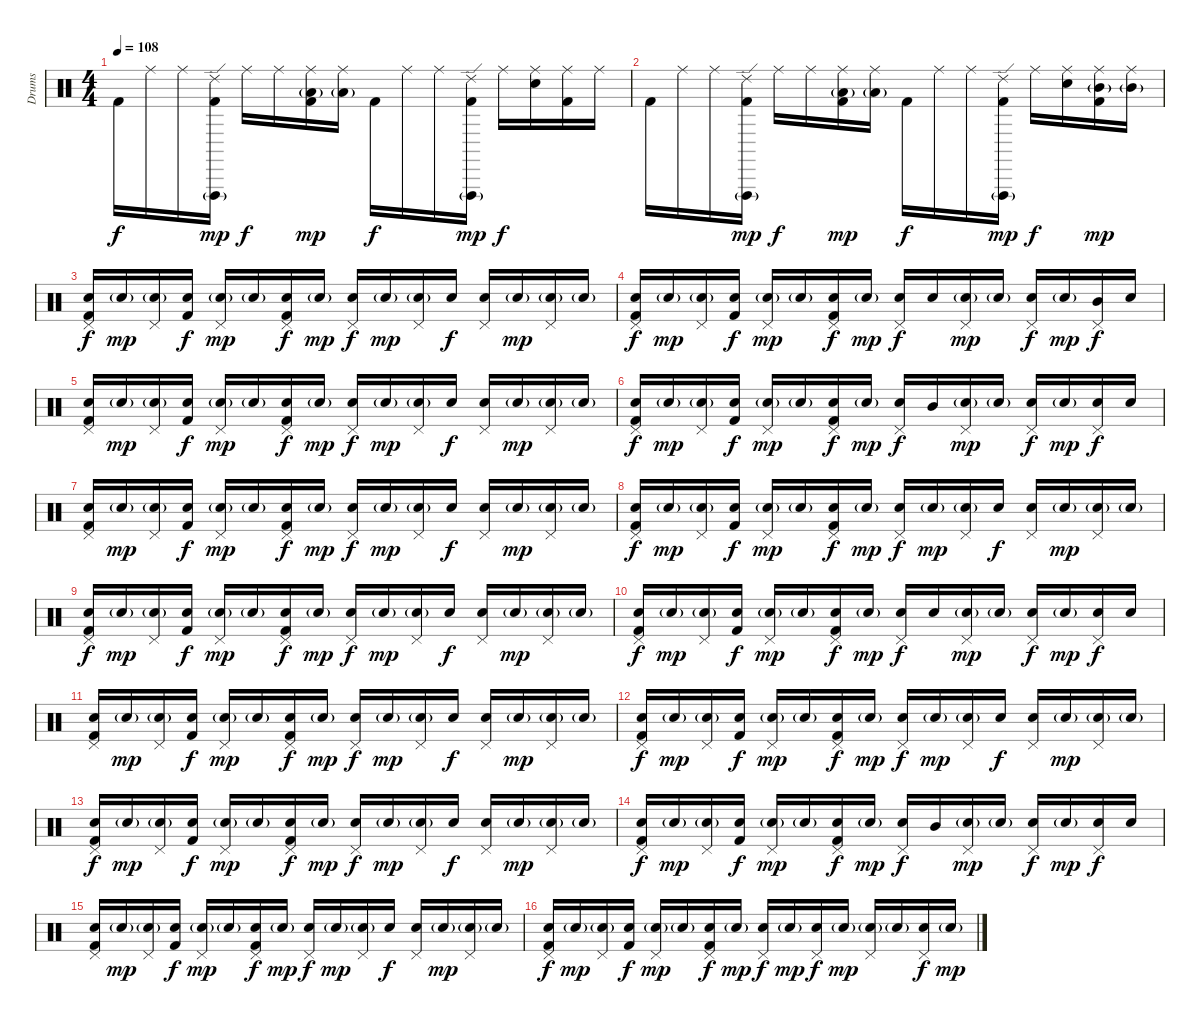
\track ("Drums" "Drums") {instrument percussion}
\staff {score}
\articulation defaults
\ts (4 4)
\tempo 108
\clef neutral
\ks c "Kick (hit) 2".16{dy f} "Ride (middle)".16 "Ride (middle)".16
("Vibraslap (hit)"{g} "Ride (edge) 2" "Kick (hit) 2").16{dy mp} "Ride (middle)".16{dy f} "Ride (middle)".16 ("Ride (middle)" "Kick (hit) 2" "Low Tom (hit)"{g}).16{dy mp} ("Ride (middle)" "Low Tom (hit)"{g}).16 "Kick (hit) 2".16{dy f} "Ride (middle)".16 "Ride (middle)".16 ("Vibraslap (hit)"{g} "Ride (edge) 2" "Kick (hit) 2").16{dy mp} "Ride (middle)".16{dy f} ("Ride (middle)" "Snare (hit) 2").16 ("Ride (middle)" "Kick (hit) 2").16 "Ride (middle)".16 |
"Kick (hit) 2".16 "Ride (middle)".16 "Ride (middle)".16 ("Vibraslap (hit)"{g} "Ride (edge) 2" "Kick (hit) 2").16{dy mp} "Ride (middle)".16{dy f} "Ride (middle)".16 ("Ride (middle)" "Kick (hit) 2" "Low Tom (hit)"{g}).16{dy mp} ("Ride (middle)" "Low Tom (hit)"{g}).16 "Kick (hit) 2".16{dy f} "Ride (middle)".16 "Ride (middle)".16 ("Vibraslap (hit)"{g} "Ride (edge) 2" "Kick (hit) 2").16{dy mp} "Ride (middle)".16{dy f} ("Ride (middle)" "Snare (hit) 2").16 ("Ride (middle)" "Mid Tom (hit)"{g} "Kick (hit) 2").16{dy mp} ("Ride (middle)" "Mid Tom (hit)"{g}).16 |
("Snare (hit) 2" "Kick (hit) 2" "Pedal Hi-Hat (hit)").16{dy f volume 13} "Snare (hit) 2"{g}.16{dy mp volume 9} ("Snare (hit) 2"{g} "Pedal Hi-Hat (hit)").16 ("Snare (hit) 2" "Kick (hit) 2").16{dy f} ("Snare (hit) 2"{g} "Pedal Hi-Hat (hit)").16{dy mp} "Snare (hit) 2"{g}.16 ("Snare (hit) 2" "Kick (hit) 2" "Pedal Hi-Hat (hit)").16{dy f} "Snare (hit) 2"{g}.16{dy mp} ("Snare (hit) 2" "Pedal Hi-Hat (hit)").16{dy f} "Snare (hit) 2"{g}.16{dy mp} ("Snare (hit) 2"{g} "Pedal Hi-Hat (hit)").16 "Snare (hit) 2".16{dy f volume 13} ("Snare (hit) 2" "Pedal Hi-Hat (hit)").16 "Snare (hit) 2"{g}.16{dy mp volume 8} ("Snare (hit) 2"{g} "Pedal Hi-Hat (hit)").16 "Snare (hit) 2"{g}.16 |
("Snare (hit) 2" "Kick (hit) 2" "Pedal Hi-Hat (hit)").16{dy f volume 13} "Snare (hit) 2"{g}.16{dy mp volume 9} ("Snare (hit) 2"{g} "Pedal Hi-Hat (hit)").16 ("Snare (hit) 2" "Kick (hit) 2").16{dy f} ("Snare (hit) 2"{g} "Pedal Hi-Hat (hit)").16{dy mp} "Snare (hit) 2"{g}.16 ("Snare (hit) 2" "Kick (hit) 2" "Pedal Hi-Hat (hit)").16{dy f} "Snare (hit) 2"{g}.16{dy mp} ("Snare (hit) 2" "Pedal Hi-Hat (hit)").16{dy f volume 13} "Snare (hit) 2".16 ("Snare (hit) 2"{g} "Pedal Hi-Hat (hit)").16{dy mp} "Snare (hit) 2"{g}.16 ("Snare (hit) 2" "Pedal Hi-Hat (hit)").16{dy f volume 16} "Snare (hit) 2"{g}.16{dy mp volume 8} ("Mid Tom (hit)" "Pedal Hi-Hat (hit)").16{dy f volume 16} "Snare (hit) 2".16{volume 16} |
("Snare (hit) 2" "Kick (hit) 2" "Pedal Hi-Hat (hit)").16{volume 13} "Snare (hit) 2"{g}.16{dy mp volume 9} ("Snare (hit) 2"{g} "Pedal Hi-Hat (hit)").16 ("Snare (hit) 2" "Kick (hit) 2").16{dy f} ("Snare (hit) 2"{g} "Pedal Hi-Hat (hit)").16{dy mp} "Snare (hit) 2"{g}.16 ("Snare (hit) 2" "Kick (hit) 2" "Pedal Hi-Hat (hit)").16{dy f} "Snare (hit) 2"{g}.16{dy mp} ("Snare (hit) 2" "Pedal Hi-Hat (hit)").16{dy f} "Snare (hit) 2"{g}.16{dy mp} ("Snare (hit) 2"{g} "Pedal Hi-Hat (hit)").16 "Snare (hit) 2".16{dy f volume 13} ("Snare (hit) 2" "Pedal Hi-Hat (hit)").16 "Snare (hit) 2"{g}.16{dy mp volume 8} ("Snare (hit) 2"{g} "Pedal Hi-Hat (hit)").16 "Snare (hit) 2"{g}.16 |
("Snare (hit) 2" "Kick (hit) 2" "Pedal Hi-Hat (hit)").16{dy f volume 13} "Snare (hit) 2"{g}.16{dy mp volume 9} ("Snare (hit) 2"{g} "Pedal Hi-Hat (hit)").16 ("Snare (hit) 2" "Kick (hit) 2").16{dy f} ("Snare (hit) 2"{g} "Pedal Hi-Hat (hit)").16{dy mp} "Snare (hit) 2"{g}.16 ("Snare (hit) 2" "Kick (hit) 2" "Pedal Hi-Hat (hit)").16{dy f} "Snare (hit) 2"{g}.16{dy mp} ("Snare (hit) 2" "Pedal Hi-Hat (hit)").16{dy f volume 13} "Mid Tom (hit)".16 ("Snare (hit) 2"{g} "Pedal Hi-Hat (hit)").16{dy mp} "Snare (hit) 2"{g}.16 ("Snare (hit) 2" "Pedal Hi-Hat (hit)").16{dy f volume 16} "Snare (hit) 2"{g}.16{dy mp volume 8} ("Snare (hit) 2" "Pedal Hi-Hat (hit)").16{dy f volume 16} "Snare (hit) 2".16{volume 16} |
("Snare (hit) 2" "Kick (hit) 2" "Pedal Hi-Hat (hit)").16{volume 13} "Snare (hit) 2"{g}.16{dy mp volume 9} ("Snare (hit) 2"{g} "Pedal Hi-Hat (hit)").16 ("Snare (hit) 2" "Kick (hit) 2").16{dy f} ("Snare (hit) 2"{g} "Pedal Hi-Hat (hit)").16{dy mp} "Snare (hit) 2"{g}.16 ("Snare (hit) 2" "Kick (hit) 2" "Pedal Hi-Hat (hit)").16{dy f} "Snare (hit) 2"{g}.16{dy mp} ("Snare (hit) 2" "Pedal Hi-Hat (hit)").16{dy f} "Snare (hit) 2"{g}.16{dy mp} ("Snare (hit) 2"{g} "Pedal Hi-Hat (hit)").16 "Snare (hit) 2".16{dy f volume 13} ("Snare (hit) 2" "Pedal Hi-Hat (hit)").16 "Snare (hit) 2"{g}.16{dy mp volume 8} ("Snare (hit) 2"{g} "Pedal Hi-Hat (hit)").16 "Snare (hit) 2"{g}.16 |
("Snare (hit) 2" "Kick (hit) 2" "Pedal Hi-Hat (hit)").16{dy f volume 13} "Snare (hit) 2"{g}.16{dy mp volume 9} ("Snare (hit) 2"{g} "Pedal Hi-Hat (hit)").16 ("Snare (hit) 2" "Kick (hit) 2").16{dy f} ("Snare (hit) 2"{g} "Pedal Hi-Hat (hit)").16{dy mp} "Snare (hit) 2"{g}.16 ("Snare (hit) 2" "Kick (hit) 2" "Pedal Hi-Hat (hit)").16{dy f} "Snare (hit) 2"{g}.16{dy mp} ("Snare (hit) 2" "Pedal Hi-Hat (hit)").16{dy f} "Snare (hit) 2"{g}.16{dy mp} ("Snare (hit) 2"{g} "Pedal Hi-Hat (hit)").16 "Snare (hit) 2".16{dy f volume 13} ("Snare (hit) 2" "Pedal Hi-Hat (hit)").16 "Snare (hit) 2"{g}.16{dy mp volume 8} ("Snare (hit) 2"{g} "Pedal Hi-Hat (hit)").16 "Snare (hit) 2"{g}.16 |
("Snare (hit) 2" "Kick (hit) 2" "Pedal Hi-Hat (hit)").16{dy f volume 13} "Snare (hit) 2"{g}.16{dy mp volume 9} ("Snare (hit) 2"{g} "Pedal Hi-Hat (hit)").16 ("Snare (hit) 2" "Kick (hit) 2").16{dy f} ("Snare (hit) 2"{g} "Pedal Hi-Hat (hit)").16{dy mp} "Snare (hit) 2"{g}.16 ("Snare (hit) 2" "Kick (hit) 2" "Pedal Hi-Hat (hit)").16{dy f} "Snare (hit) 2"{g}.16{dy mp} ("Snare (hit) 2" "Pedal Hi-Hat (hit)").16{dy f} "Snare (hit) 2"{g}.16{dy mp} ("Snare (hit) 2"{g} "Pedal Hi-Hat (hit)").16 "Snare (hit) 2".16{dy f volume 13} ("Snare (hit) 2" "Pedal Hi-Hat (hit)").16 "Snare (hit) 2"{g}.16{dy mp volume 8} ("Snare (hit) 2"{g} "Pedal Hi-Hat (hit)").16 "Snare (hit) 2"{g}.16 |
("Snare (hit) 2" "Kick (hit) 2" "Pedal Hi-Hat (hit)").16{dy f volume 13} "Snare (hit) 2"{g}.16{dy mp volume 9} ("Snare (hit) 2"{g} "Pedal Hi-Hat (hit)").16 ("Snare (hit) 2" "Kick (hit) 2").16{dy f} ("Snare (hit) 2"{g} "Pedal Hi-Hat (hit)").16{dy mp} "Snare (hit) 2"{g}.16 ("Snare (hit) 2" "Kick (hit) 2" "Pedal Hi-Hat (hit)").16{dy f} "Snare (hit) 2"{g}.16{dy mp} ("Snare (hit) 2" "Pedal Hi-Hat (hit)").16{dy f volume 13} "Snare (hit) 2".16 ("Snare (hit) 2"{g} "Pedal Hi-Hat (hit)").16{dy mp} "Snare (hit) 2"{g}.16 ("Snare (hit) 2" "Pedal Hi-Hat (hit)").16{dy f} "Snare (hit) 2"{g}.16{dy mp volume 8} ("Snare (hit) 2" "Pedal Hi-Hat (hit)").16{dy f volume 16} "Snare (hit) 2".16{volume 16} |
("Snare (hit) 2" "Kick (hit) 2" "Pedal Hi-Hat (hit)").16{volume 13} "Snare (hit) 2"{g}.16{dy mp volume 9} ("Snare (hit) 2"{g} "Pedal Hi-Hat (hit)").16 ("Snare (hit) 2" "Kick (hit) 2").16{dy f} ("Snare (hit) 2"{g} "Pedal Hi-Hat (hit)").16{dy mp} "Snare (hit) 2"{g}.16 ("Snare (hit) 2" "Kick (hit) 2" "Pedal Hi-Hat (hit)").16{dy f} "Snare (hit) 2"{g}.16{dy mp} ("Snare (hit) 2" "Pedal Hi-Hat (hit)").16{dy f} "Snare (hit) 2"{g}.16{dy mp} ("Snare (hit) 2"{g} "Pedal Hi-Hat (hit)").16 "Snare (hit) 2".16{dy f volume 13} ("Snare (hit) 2" "Pedal Hi-Hat (hit)").16 "Snare (hit) 2"{g}.16{dy mp volume 8} ("Snare (hit) 2"{g} "Pedal Hi-Hat (hit)").16 "Snare (hit) 2"{g}.16 |
("Snare (hit) 2" "Kick (hit) 2" "Pedal Hi-Hat (hit)").16{dy f volume 13} "Snare (hit) 2"{g}.16{dy mp volume 9} ("Snare (hit) 2"{g} "Pedal Hi-Hat (hit)").16 ("Snare (hit) 2" "Kick (hit) 2").16{dy f} ("Snare (hit) 2"{g} "Pedal Hi-Hat (hit)").16{dy mp} "Snare (hit) 2"{g}.16 ("Snare (hit) 2" "Kick (hit) 2" "Pedal Hi-Hat (hit)").16{dy f} "Snare (hit) 2"{g}.16{dy mp} ("Snare (hit) 2" "Pedal Hi-Hat (hit)").16{dy f} "Snare (hit) 2"{g}.16{dy mp} ("Snare (hit) 2"{g} "Pedal Hi-Hat (hit)").16 "Snare (hit) 2".16{dy f volume 13} ("Snare (hit) 2" "Pedal Hi-Hat (hit)").16 "Snare (hit) 2"{g}.16{dy mp volume 8} ("Snare (hit) 2"{g} "Pedal Hi-Hat (hit)").16 "Snare (hit) 2"{g}.16 |
("Snare (hit) 2" "Kick (hit) 2" "Pedal Hi-Hat (hit)").16{dy f volume 13} "Snare (hit) 2"{g}.16{dy mp volume 9} ("Snare (hit) 2"{g} "Pedal Hi-Hat (hit)").16 ("Snare (hit) 2" "Kick (hit) 2").16{dy f} ("Snare (hit) 2"{g} "Pedal Hi-Hat (hit)").16{dy mp} "Snare (hit) 2"{g}.16 ("Snare (hit) 2" "Kick (hit) 2" "Pedal Hi-Hat (hit)").16{dy f} "Snare (hit) 2"{g}.16{dy mp} ("Snare (hit) 2" "Pedal Hi-Hat (hit)").16{dy f} "Snare (hit) 2"{g}.16{dy mp} ("Snare (hit) 2"{g} "Pedal Hi-Hat (hit)").16 "Snare (hit) 2".16{dy f volume 13} ("Snare (hit) 2" "Pedal Hi-Hat (hit)").16 "Snare (hit) 2"{g}.16{dy mp volume 8} ("Snare (hit) 2"{g} "Pedal Hi-Hat (hit)").16 "Snare (hit) 2"{g}.16 |
("Snare (hit) 2" "Kick (hit) 2" "Pedal Hi-Hat (hit)").16{dy f volume 13} "Snare (hit) 2"{g}.16{dy mp volume 9} ("Snare (hit) 2"{g} "Pedal Hi-Hat (hit)").16 ("Snare (hit) 2" "Kick (hit) 2").16{dy f} ("Snare (hit) 2"{g} "Pedal Hi-Hat (hit)").16{dy mp} "Snare (hit) 2"{g}.16 ("Snare (hit) 2" "Kick (hit) 2" "Pedal Hi-Hat (hit)").16{dy f} "Snare (hit) 2"{g}.16{dy mp} ("Snare (hit) 2" "Pedal Hi-Hat (hit)").16{dy f volume 13} "Mid Tom (hit)".16 ("Snare (hit) 2"{g} "Pedal Hi-Hat (hit)").16{dy mp} "Snare (hit) 2"{g}.16 ("Snare (hit) 2" "Pedal Hi-Hat (hit)").16{dy f volume 16} "Snare (hit) 2"{g}.16{dy mp volume 8} ("Snare (hit) 2" "Pedal Hi-Hat (hit)").16{dy f volume 16} "Snare (hit) 2".16{volume 16} |
("Snare (hit) 2" "Kick (hit) 2" "Pedal Hi-Hat (hit)").16{volume 13} "Snare (hit) 2"{g}.16{dy mp volume 9} ("Snare (hit) 2"{g} "Pedal Hi-Hat (hit)").16 ("Snare (hit) 2" "Kick (hit) 2").16{dy f} ("Snare (hit) 2"{g} "Pedal Hi-Hat (hit)").16{dy mp} "Snare (hit) 2"{g}.16 ("Snare (hit) 2" "Kick (hit) 2" "Pedal Hi-Hat (hit)").16{dy f} "Snare (hit) 2"{g}.16{dy mp} ("Snare (hit) 2" "Pedal Hi-Hat (hit)").16{dy f} "Snare (hit) 2"{g}.16{dy mp} ("Snare (hit) 2"{g} "Pedal Hi-Hat (hit)").16 "Snare (hit) 2".16{dy f volume 13} ("Snare (hit) 2" "Pedal Hi-Hat (hit)").16 "Snare (hit) 2"{g}.16{dy mp volume 8} ("Snare (hit) 2"{g} "Pedal Hi-Hat (hit)").16 "Snare (hit) 2"{g}.16 |
("Snare (hit) 2" "Kick (hit) 2" "Pedal Hi-Hat (hit)").16{dy f volume 13} "Snare (hit) 2"{g}.16{dy mp volume 9} ("Snare (hit) 2"{g} "Pedal Hi-Hat (hit)").16 ("Snare (hit) 2" "Kick (hit) 2").16{dy f} ("Snare (hit) 2"{g} "Pedal Hi-Hat (hit)").16{dy mp} "Snare (hit) 2"{g}.16 ("Snare (hit) 2" "Kick (hit) 2" "Pedal Hi-Hat (hit)").16{dy f} "Snare (hit) 2"{g}.16{dy mp} ("Snare (hit) 2" "Pedal Hi-Hat (hit)").16{dy f} "Snare (hit) 2"{g}.16{dy mp} ("Snare (hit) 2" "Pedal Hi-Hat (hit)").16{dy f volume 16} "Snare (hit) 2"{g}.16{dy mp volume 13} ("Snare (hit) 2"{g} "Pedal Hi-Hat (hit)").16 "Snare (hit) 2"{g}.16{volume 10} ("Snare (hit) 2" "Pedal Hi-Hat (hit)").16{dy f volume 16} "Snare (hit) 2"{g}.16{dy mp volume 10}
